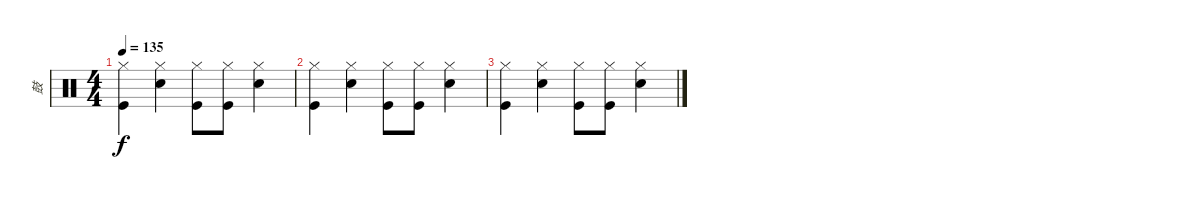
\track ("鼓" "鼓") {instrument percussion}
\staff {score}
\articulation defaults
\ts (4 4)
\tempo 135
\clef neutral
\ks c
("Hi-Hat (closed)" "Kick (hit)").4{dy f} ("Hi-Hat (closed)" "Metronome (bell)").4 ("Hi-Hat (closed)" "Kick (hit)").8 ("Hi-Hat (closed)" "Kick (hit)").8 ("Hi-Hat (closed)" "Metronome (bell)").4 |
("Hi-Hat (closed)" "Kick (hit)").4 ("Hi-Hat (closed)" "Metronome (bell)").4 ("Hi-Hat (closed)" "Kick (hit)").8 ("Hi-Hat (closed)" "Kick (hit)").8 ("Hi-Hat (closed)" "Metronome (bell)").4 |
("Hi-Hat (closed)" "Kick (hit)").4 ("Hi-Hat (closed)" "Metronome (bell)").4 ("Hi-Hat (closed)" "Kick (hit)").8 ("Hi-Hat (closed)" "Kick (hit)").8 ("Hi-Hat (closed)" "Metronome (bell)").4
